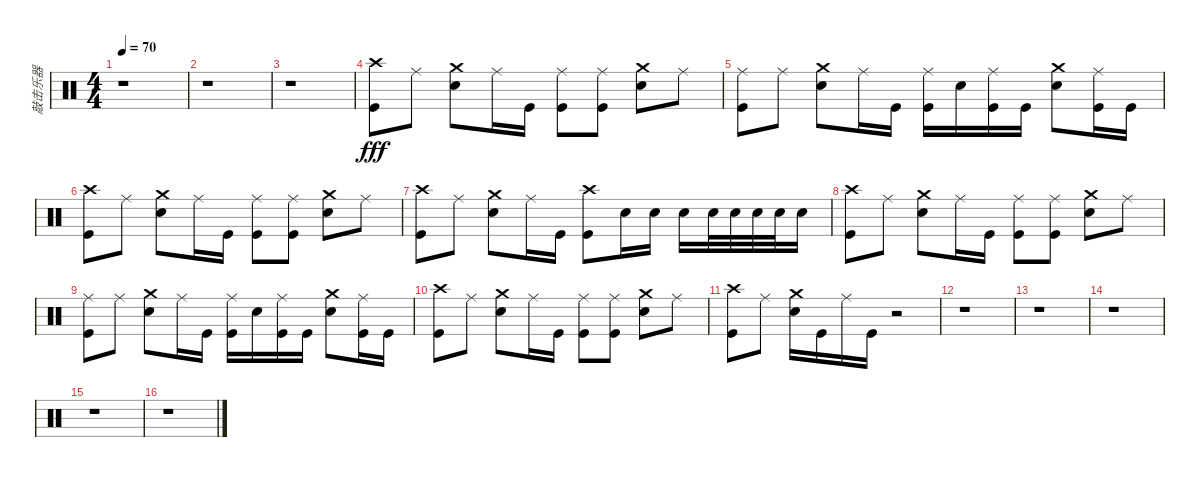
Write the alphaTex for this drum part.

\track ("敲击乐器" "敲击乐器") {instrument percussion}
\staff {score}
\articulation defaults
\ts (4 4)
\tempo 70
\clef neutral
\ks c
r.1{dy fff} |
r.1 |
r.1 |
("Crash high (hit)" "Kick (hit)").8 "Ride (middle)".8 ("Crash medium (hit)" "Snare (hit) 2").8 "Ride (middle)".16 "Kick (hit)".16 ("Ride (middle)" "Kick (hit)").8 ("Ride (middle)" "Kick (hit)").8 ("Crash medium (hit)" "Snare (hit) 2").8 "Ride (middle)".8 |
("Ride (middle)" "Kick (hit)").8 "Ride (middle)".8 ("Crash medium (hit)" "Snare (hit) 2").8 "Ride (middle)".16 "Kick (hit)".16 ("Ride (middle)" "Kick (hit)").16 "Snare (hit) 2".16 ("Ride (middle)" "Kick (hit)").16 "Kick (hit)".16 ("Crash medium (hit)" "Snare (hit) 2").8 ("Ride (middle)" "Kick (hit)").16 "Kick (hit)".16 |
("Crash high (hit)" "Kick (hit)").8 "Ride (middle)".8 ("Crash medium (hit)" "Snare (hit) 2").8 "Ride (middle)".16 "Kick (hit)".16 ("Ride (middle)" "Kick (hit)").8 ("Ride (middle)" "Kick (hit)").8 ("Crash medium (hit)" "Snare (hit) 2").8 "Ride (middle)".8 |
("Crash high (hit)" "Kick (hit)").8 "Ride (middle)".8 ("Crash medium (hit)" "Snare (hit) 2").8 "Ride (middle)".16 "Kick (hit)".16 ("Crash high (hit)" "Kick (hit)").8 "Snare (hit) 2".16 "Snare (hit) 2".16 "Snare (hit) 2".16 "Snare (hit) 2".32 "Snare (hit) 2".32 "Snare (hit) 2".32 "Snare (hit) 2".32 "Snare (hit) 2".16 |
("Crash high (hit)" "Kick (hit)").8 "Ride (middle)".8 ("Crash medium (hit)" "Snare (hit) 2").8 "Ride (middle)".16 "Kick (hit)".16 ("Ride (middle)" "Kick (hit)").8 ("Ride (middle)" "Kick (hit)").8 ("Crash medium (hit)" "Snare (hit) 2").8 "Ride (middle)".8 |
("Ride (middle)" "Kick (hit)").8 "Ride (middle)".8 ("Crash medium (hit)" "Snare (hit) 2").8 "Ride (middle)".16 "Kick (hit)".16 ("Ride (middle)" "Kick (hit)").16 "Snare (hit) 2".16 ("Ride (middle)" "Kick (hit)").16 "Kick (hit)".16 ("Crash medium (hit)" "Snare (hit) 2").8 ("Ride (middle)" "Kick (hit)").16 "Kick (hit)".16 |
("Crash high (hit)" "Kick (hit)").8 "Ride (middle)".8 ("Crash medium (hit)" "Snare (hit) 2").8 "Ride (middle)".16 "Kick (hit)".16 ("Ride (middle)" "Kick (hit)").8 ("Ride (middle)" "Kick (hit)").8 ("Crash medium (hit)" "Snare (hit) 2").8 "Ride (middle)".8 |
("Crash high (hit)" "Kick (hit)").8 "Ride (middle)".8 ("Crash medium (hit)" "Snare (hit) 2").16 "Kick (hit)".16 "Ride (middle)".16 "Kick (hit)".16 r.2 |
r.1 |
r.1 |
r.1 |
r.1 |
r.1
